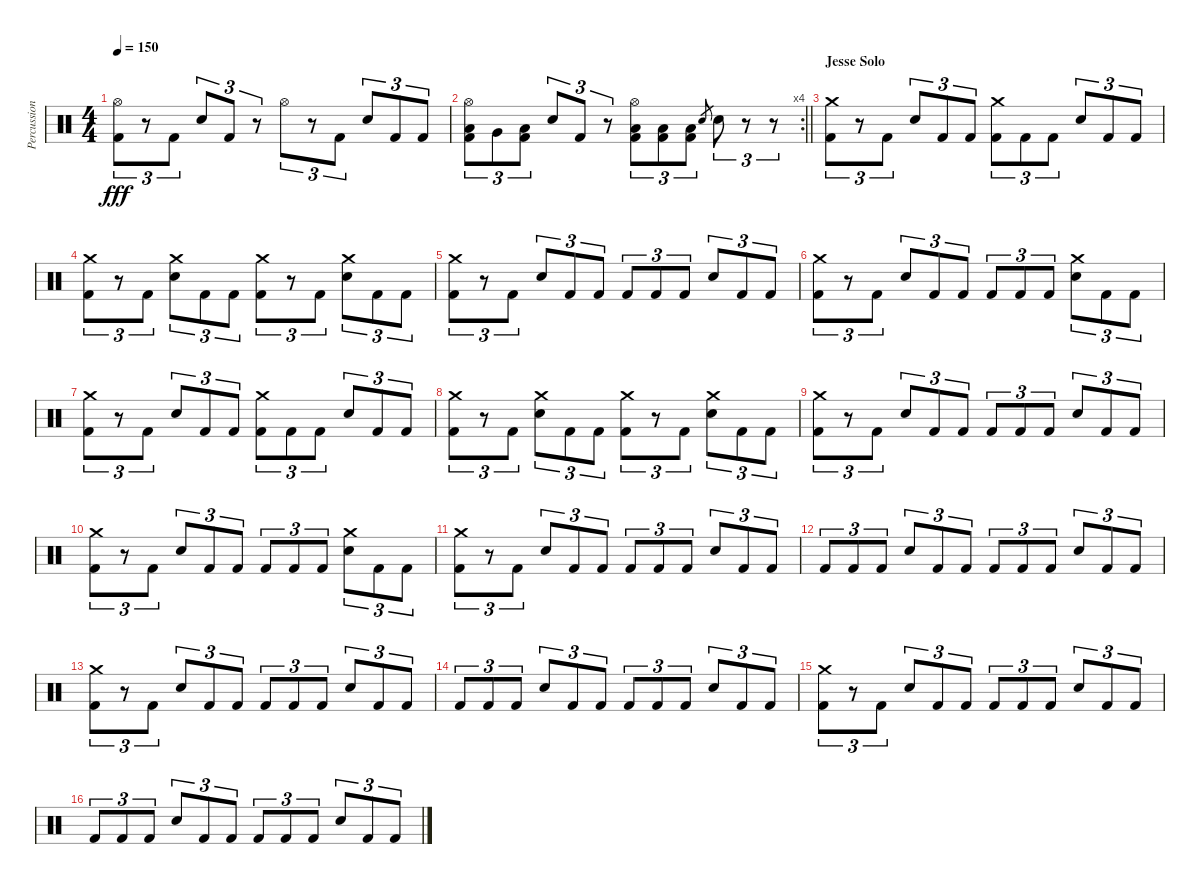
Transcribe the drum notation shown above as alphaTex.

\track ("Percussion" "Percussion") {instrument percussion}
\staff {score}
\articulation defaults
\ts (4 4)
\tempo 150
\clef neutral
\ks c
("Hi-Hat (open)" "Kick (hit) 2").8{tu (3 2) dy fff} r.8{tu (3 2)} "Kick (hit) 2".8{tu (3 2)} "Snare (hit) 2".8{tu (3 2)} "Kick (hit) 2".8{tu (3 2)} r.8{tu (3 2)} "Hi-Hat (open)".8{tu (3 2)} r.8{tu (3 2)} "Kick (hit) 2".8{tu (3 2)} "Snare (hit) 2".8{tu (3 2)} "Kick (hit) 2".8{tu (3 2)} "Kick (hit) 2".8{tu (3 2)} |
\rc 4
\barLineRight lightlight
("Hi-Hat (open)" "Low Tom (hit)" "Kick (hit) 2").8{tu (3 2)} "Very Low Tom (hit)".8{tu (3 2)} ("Low Floor Tom (hit)" "Kick (hit) 2").8{tu (3 2)} "Snare (hit) 2".8{tu (3 2)} "Kick (hit) 2".8{tu (3 2)} r.8{tu (3 2)} ("Hi-Hat (open)" "Low Floor Tom (hit)" "Kick (hit) 2").8{tu (3 2)} ("Low Floor Tom (hit)" "Kick (hit) 2").8{tu (3 2)} ("Low Floor Tom (hit)" "Kick (hit) 2").8{tu (3 2)} "Electric Snare (hit)".8{gr} "Snare (hit) 2".8{tu (3 2)} r.8{tu (3 2)} r.8{tu (3 2)} |
\section ("" "Jesse Solo")
("Crash medium (hit)" "Kick (hit) 2").8{tu (3 2)} r.8{tu (3 2)} "Kick (hit) 2".8{tu (3 2)} "Snare (hit) 2".8{tu (3 2)} "Kick (hit) 2".8{tu (3 2)} "Kick (hit) 2".8{tu (3 2)} ("Crash medium (hit)" "Kick (hit) 2").8{tu (3 2)} "Kick (hit) 2".8{tu (3 2)} "Kick (hit) 2".8{tu (3 2)} "Snare (hit) 2".8{tu (3 2)} "Kick (hit) 2".8{tu (3 2)} "Kick (hit) 2".8{tu (3 2)} |
("Crash medium (hit)" "Kick (hit) 2").8{tu (3 2)} r.8{tu (3 2)} "Kick (hit) 2".8{tu (3 2)} ("Crash medium (hit)" "Snare (hit) 2").8{tu (3 2)} "Kick (hit) 2".8{tu (3 2)} "Kick (hit) 2".8{tu (3 2)} ("Crash medium (hit)" "Kick (hit) 2").8{tu (3 2)} r.8{tu (3 2)} "Kick (hit) 2".8{tu (3 2)} ("Crash medium (hit)" "Snare (hit) 2").8{tu (3 2)} "Kick (hit) 2".8{tu (3 2)} "Kick (hit) 2".8{tu (3 2)} |
("Crash medium (hit)" "Kick (hit) 2").8{tu (3 2)} r.8{tu (3 2)} "Kick (hit) 2".8{tu (3 2)} "Snare (hit) 2".8{tu (3 2)} "Kick (hit) 2".8{tu (3 2)} "Kick (hit) 2".8{tu (3 2)} "Kick (hit) 2".8{tu (3 2)} "Kick (hit) 2".8{tu (3 2)} "Kick (hit) 2".8{tu (3 2)} "Snare (hit) 2".8{tu (3 2)} "Kick (hit) 2".8{tu (3 2)} "Kick (hit) 2".8{tu (3 2)} |
("Crash medium (hit)" "Kick (hit) 2").8{tu (3 2)} r.8{tu (3 2)} "Kick (hit) 2".8{tu (3 2)} "Snare (hit) 2".8{tu (3 2)} "Kick (hit) 2".8{tu (3 2)} "Kick (hit) 2".8{tu (3 2)} "Kick (hit) 2".8{tu (3 2)} "Kick (hit) 2".8{tu (3 2)} "Kick (hit) 2".8{tu (3 2)} ("Crash medium (hit)" "Snare (hit) 2").8{tu (3 2)} "Kick (hit) 2".8{tu (3 2)} "Kick (hit) 2".8{tu (3 2)} |
("Crash medium (hit)" "Kick (hit) 2").8{tu (3 2)} r.8{tu (3 2)} "Kick (hit) 2".8{tu (3 2)} "Snare (hit) 2".8{tu (3 2)} "Kick (hit) 2".8{tu (3 2)} "Kick (hit) 2".8{tu (3 2)} ("Crash medium (hit)" "Kick (hit) 2").8{tu (3 2)} "Kick (hit) 2".8{tu (3 2)} "Kick (hit) 2".8{tu (3 2)} "Snare (hit) 2".8{tu (3 2)} "Kick (hit) 2".8{tu (3 2)} "Kick (hit) 2".8{tu (3 2)} |
("Crash medium (hit)" "Kick (hit) 2").8{tu (3 2)} r.8{tu (3 2)} "Kick (hit) 2".8{tu (3 2)} ("Crash medium (hit)" "Snare (hit) 2").8{tu (3 2)} "Kick (hit) 2".8{tu (3 2)} "Kick (hit) 2".8{tu (3 2)} ("Crash medium (hit)" "Kick (hit) 2").8{tu (3 2)} r.8{tu (3 2)} "Kick (hit) 2".8{tu (3 2)} ("Crash medium (hit)" "Snare (hit) 2").8{tu (3 2)} "Kick (hit) 2".8{tu (3 2)} "Kick (hit) 2".8{tu (3 2)} |
("Crash medium (hit)" "Kick (hit) 2").8{tu (3 2)} r.8{tu (3 2)} "Kick (hit) 2".8{tu (3 2)} "Snare (hit) 2".8{tu (3 2)} "Kick (hit) 2".8{tu (3 2)} "Kick (hit) 2".8{tu (3 2)} "Kick (hit) 2".8{tu (3 2)} "Kick (hit) 2".8{tu (3 2)} "Kick (hit) 2".8{tu (3 2)} "Snare (hit) 2".8{tu (3 2)} "Kick (hit) 2".8{tu (3 2)} "Kick (hit) 2".8{tu (3 2)} |
("Crash medium (hit)" "Kick (hit) 2").8{tu (3 2)} r.8{tu (3 2)} "Kick (hit) 2".8{tu (3 2)} "Snare (hit) 2".8{tu (3 2)} "Kick (hit) 2".8{tu (3 2)} "Kick (hit) 2".8{tu (3 2)} "Kick (hit) 2".8{tu (3 2)} "Kick (hit) 2".8{tu (3 2)} "Kick (hit) 2".8{tu (3 2)} ("Crash medium (hit)" "Snare (hit) 2").8{tu (3 2)} "Kick (hit) 2".8{tu (3 2)} "Kick (hit) 2".8{tu (3 2)} |
("Crash medium (hit)" "Kick (hit) 2").8{tu (3 2)} r.8{tu (3 2)} "Kick (hit) 2".8{tu (3 2)} "Snare (hit) 2".8{tu (3 2)} "Kick (hit) 2".8{tu (3 2)} "Kick (hit) 2".8{tu (3 2)} "Kick (hit) 2".8{tu (3 2)} "Kick (hit) 2".8{tu (3 2)} "Kick (hit) 2".8{tu (3 2)} "Snare (hit) 2".8{tu (3 2)} "Kick (hit) 2".8{tu (3 2)} "Kick (hit) 2".8{tu (3 2)} |
"Kick (hit) 2".8{tu (3 2)} "Kick (hit) 2".8{tu (3 2)} "Kick (hit) 2".8{tu (3 2)} "Snare (hit) 2".8{tu (3 2)} "Kick (hit) 2".8{tu (3 2)} "Kick (hit) 2".8{tu (3 2)} "Kick (hit) 2".8{tu (3 2)} "Kick (hit) 2".8{tu (3 2)} "Kick (hit) 2".8{tu (3 2)} "Snare (hit) 2".8{tu (3 2)} "Kick (hit) 2".8{tu (3 2)} "Kick (hit) 2".8{tu (3 2)} |
("Crash medium (hit)" "Kick (hit) 2").8{tu (3 2)} r.8{tu (3 2)} "Kick (hit) 2".8{tu (3 2)} "Snare (hit) 2".8{tu (3 2)} "Kick (hit) 2".8{tu (3 2)} "Kick (hit) 2".8{tu (3 2)} "Kick (hit) 2".8{tu (3 2)} "Kick (hit) 2".8{tu (3 2)} "Kick (hit) 2".8{tu (3 2)} "Snare (hit) 2".8{tu (3 2)} "Kick (hit) 2".8{tu (3 2)} "Kick (hit) 2".8{tu (3 2)} |
"Kick (hit) 2".8{tu (3 2)} "Kick (hit) 2".8{tu (3 2)} "Kick (hit) 2".8{tu (3 2)} "Snare (hit) 2".8{tu (3 2)} "Kick (hit) 2".8{tu (3 2)} "Kick (hit) 2".8{tu (3 2)} "Kick (hit) 2".8{tu (3 2)} "Kick (hit) 2".8{tu (3 2)} "Kick (hit) 2".8{tu (3 2)} "Snare (hit) 2".8{tu (3 2)} "Kick (hit) 2".8{tu (3 2)} "Kick (hit) 2".8{tu (3 2)} |
("Crash medium (hit)" "Kick (hit) 2").8{tu (3 2)} r.8{tu (3 2)} "Kick (hit) 2".8{tu (3 2)} "Snare (hit) 2".8{tu (3 2)} "Kick (hit) 2".8{tu (3 2)} "Kick (hit) 2".8{tu (3 2)} "Kick (hit) 2".8{tu (3 2)} "Kick (hit) 2".8{tu (3 2)} "Kick (hit) 2".8{tu (3 2)} "Snare (hit) 2".8{tu (3 2)} "Kick (hit) 2".8{tu (3 2)} "Kick (hit) 2".8{tu (3 2)} |
"Kick (hit) 2".8{tu (3 2)} "Kick (hit) 2".8{tu (3 2)} "Kick (hit) 2".8{tu (3 2)} "Snare (hit) 2".8{tu (3 2)} "Kick (hit) 2".8{tu (3 2)} "Kick (hit) 2".8{tu (3 2)} "Kick (hit) 2".8{tu (3 2)} "Kick (hit) 2".8{tu (3 2)} "Kick (hit) 2".8{tu (3 2)} "Snare (hit) 2".8{tu (3 2)} "Kick (hit) 2".8{tu (3 2)} "Kick (hit) 2".8{tu (3 2)}
